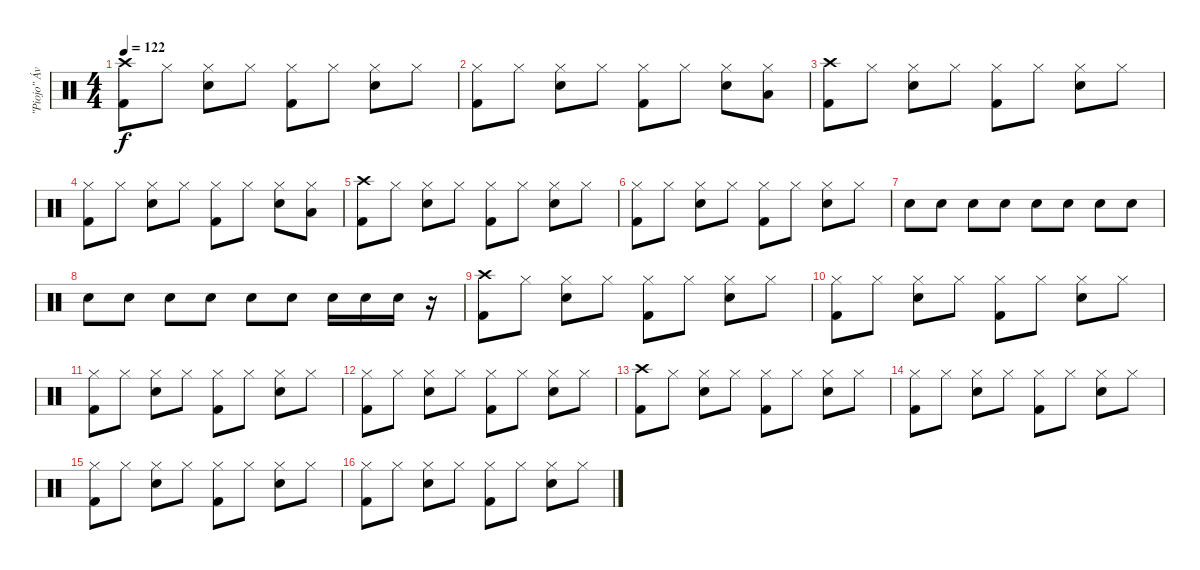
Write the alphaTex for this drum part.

\track ("\"Piojo\" Ávalos" "\"Piojo\" Áv") {instrument percussion}
\staff {score}
\articulation defaults
\ts (4 4)
\tempo 122
\clef neutral
\ks c
("Kick (hit) 2" "Crash high (hit)").8{dy f} "Hi-Hat (closed)".8 ("Snare (hit) 2" "Hi-Hat (closed)").8 "Hi-Hat (closed)".8 ("Kick (hit) 2" "Hi-Hat (closed)").8 "Hi-Hat (closed)".8 ("Snare (hit) 2" "Hi-Hat (closed)").8 "Hi-Hat (closed)".8 |
("Kick (hit) 2" "Hi-Hat (closed)").8 "Hi-Hat (closed)".8 ("Snare (hit) 2" "Hi-Hat (closed)").8 "Hi-Hat (closed)".8 ("Kick (hit) 2" "Hi-Hat (closed)").8 "Hi-Hat (closed)".8 ("Snare (hit) 2" "Hi-Hat (closed)").8 ("Low Tom (hit)" "Hi-Hat (closed)").8 |
("Kick (hit) 2" "Crash high (hit)").8 "Hi-Hat (closed)".8 ("Snare (hit) 2" "Hi-Hat (closed)").8 "Hi-Hat (closed)".8 ("Kick (hit) 2" "Hi-Hat (closed)").8 "Hi-Hat (closed)".8 ("Snare (hit) 2" "Hi-Hat (closed)").8 "Hi-Hat (closed)".8 |
("Kick (hit) 2" "Hi-Hat (closed)").8 "Hi-Hat (closed)".8 ("Snare (hit) 2" "Hi-Hat (closed)").8 "Hi-Hat (closed)".8 ("Kick (hit) 2" "Hi-Hat (closed)").8 "Hi-Hat (closed)".8 ("Snare (hit) 2" "Hi-Hat (closed)").8 ("Low Tom (hit)" "Hi-Hat (closed)").8 |
("Kick (hit) 2" "Crash high (hit)").8 "Hi-Hat (closed)".8 ("Snare (hit) 2" "Hi-Hat (closed)").8 "Hi-Hat (closed)".8 ("Kick (hit) 2" "Hi-Hat (closed)").8 "Hi-Hat (closed)".8 ("Snare (hit) 2" "Hi-Hat (closed)").8 "Hi-Hat (closed)".8 |
("Kick (hit) 2" "Hi-Hat (closed)").8 "Hi-Hat (closed)".8 ("Snare (hit) 2" "Hi-Hat (closed)").8 "Hi-Hat (closed)".8 ("Kick (hit) 2" "Hi-Hat (closed)").8 "Hi-Hat (closed)".8 ("Snare (hit) 2" "Hi-Hat (closed)").8 "Hi-Hat (closed)".8 |
"Snare (hit) 2".8 "Snare (hit) 2".8 "Snare (hit) 2".8 "Snare (hit) 2".8 "Snare (hit) 2".8 "Snare (hit) 2".8 "Snare (hit) 2".8 "Snare (hit) 2".8 |
"Snare (hit) 2".8 "Snare (hit) 2".8 "Snare (hit) 2".8 "Snare (hit) 2".8 "Snare (hit) 2".8 "Snare (hit) 2".8 "Snare (hit) 2".16 "Snare (hit) 2".16 "Snare (hit) 2".16 r.16 |
("Kick (hit) 2" "Crash high (hit)").8 "Hi-Hat (closed)".8 ("Snare (hit) 2" "Hi-Hat (closed)").8 "Hi-Hat (closed)".8 ("Kick (hit) 2" "Hi-Hat (closed)").8 "Hi-Hat (closed)".8 ("Snare (hit) 2" "Hi-Hat (closed)").8 "Hi-Hat (closed)".8 |
("Kick (hit) 2" "Hi-Hat (closed)").8 "Hi-Hat (closed)".8 ("Snare (hit) 2" "Hi-Hat (closed)").8 "Hi-Hat (closed)".8 ("Kick (hit) 2" "Hi-Hat (closed)").8 "Hi-Hat (closed)".8 ("Snare (hit) 2" "Hi-Hat (closed)").8 "Hi-Hat (closed)".8 |
("Kick (hit) 2" "Hi-Hat (closed)").8 "Hi-Hat (closed)".8 ("Snare (hit) 2" "Hi-Hat (closed)").8 "Hi-Hat (closed)".8 ("Kick (hit) 2" "Hi-Hat (closed)").8 "Hi-Hat (closed)".8 ("Snare (hit) 2" "Hi-Hat (closed)").8 "Hi-Hat (closed)".8 |
("Kick (hit) 2" "Hi-Hat (closed)").8 "Hi-Hat (closed)".8 ("Snare (hit) 2" "Hi-Hat (closed)").8 "Hi-Hat (closed)".8 ("Kick (hit) 2" "Hi-Hat (closed)").8 "Hi-Hat (closed)".8 ("Snare (hit) 2" "Hi-Hat (closed)").8 "Hi-Hat (closed)".8 |
("Kick (hit) 2" "Crash high (hit)").8 "Hi-Hat (closed)".8 ("Snare (hit) 2" "Hi-Hat (closed)").8 "Hi-Hat (closed)".8 ("Kick (hit) 2" "Hi-Hat (closed)").8 "Hi-Hat (closed)".8 ("Snare (hit) 2" "Hi-Hat (closed)").8 "Hi-Hat (closed)".8 |
("Kick (hit) 2" "Hi-Hat (closed)").8 "Hi-Hat (closed)".8 ("Snare (hit) 2" "Hi-Hat (closed)").8 "Hi-Hat (closed)".8 ("Kick (hit) 2" "Hi-Hat (closed)").8 "Hi-Hat (closed)".8 ("Snare (hit) 2" "Hi-Hat (closed)").8 "Hi-Hat (closed)".8 |
("Kick (hit) 2" "Hi-Hat (closed)").8 "Hi-Hat (closed)".8 ("Snare (hit) 2" "Hi-Hat (closed)").8 "Hi-Hat (closed)".8 ("Kick (hit) 2" "Hi-Hat (closed)").8 "Hi-Hat (closed)".8 ("Snare (hit) 2" "Hi-Hat (closed)").8 "Hi-Hat (closed)".8 |
("Kick (hit) 2" "Hi-Hat (closed)").8 "Hi-Hat (closed)".8 ("Snare (hit) 2" "Hi-Hat (closed)").8 "Hi-Hat (closed)".8 ("Kick (hit) 2" "Hi-Hat (closed)").8 "Hi-Hat (closed)".8 ("Snare (hit) 2" "Hi-Hat (closed)").8 "Hi-Hat (closed)".8
